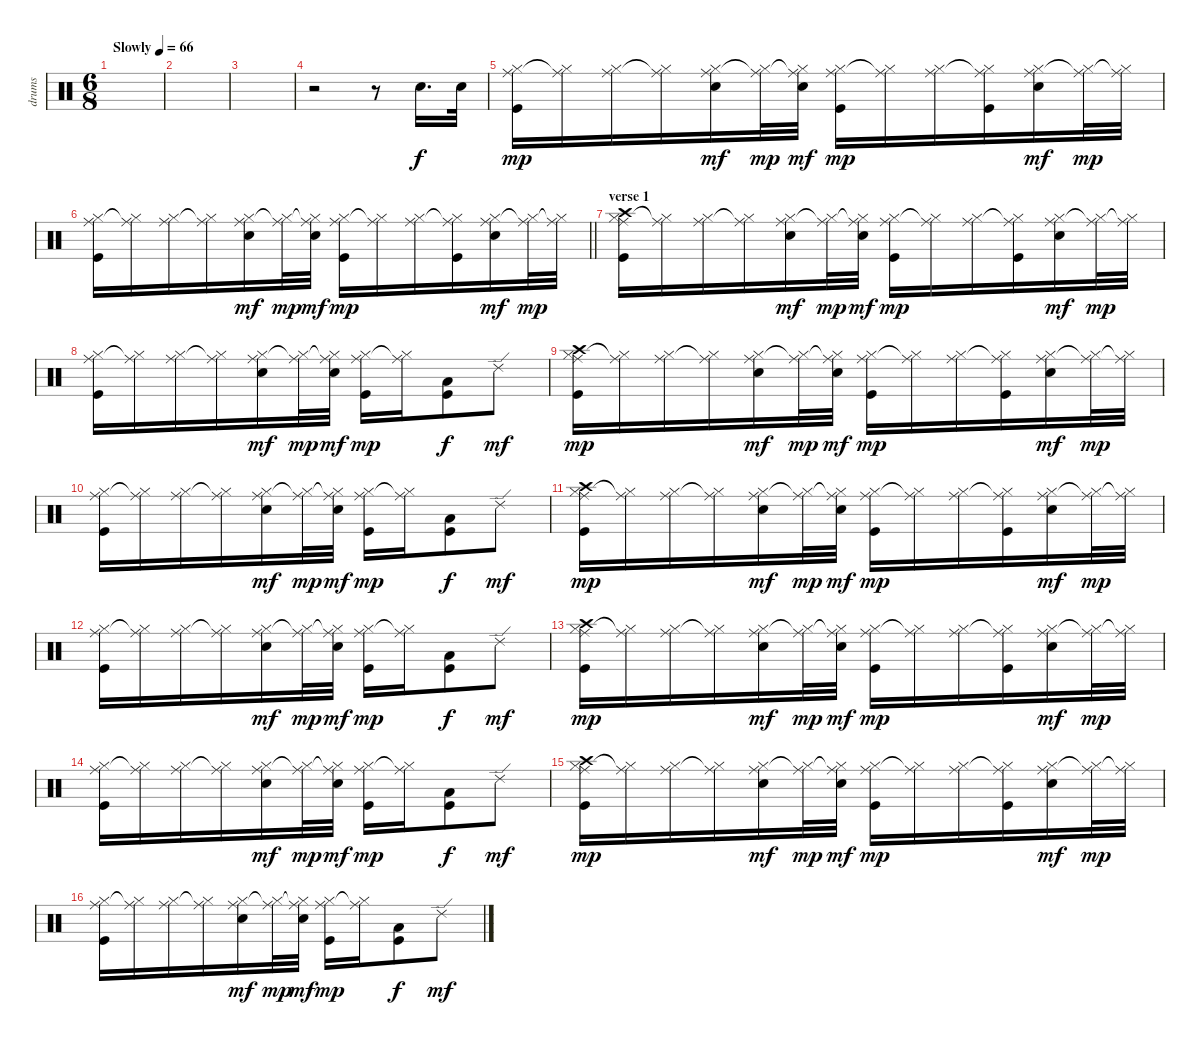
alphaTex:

\track ("drums" "drums") {instrument percussion}
\staff {score}
\articulation defaults
\ts (6 8)
\tempo (66 "Slowly")
\clef neutral
\ks c
|
|
|
r.2 r.8 "Electric Snare (hit)".16{d} "Electric Snare (hit)".32 |
("Hi-Hat (closed)" "Ride (middle)" "Kick (hit)").16{dy mp} ("Hi-Hat (closed)" "Ride (middle)"{t}).16 ("Hi-Hat (closed)" "Ride (middle)").16 ("Hi-Hat (closed)" "Ride (middle)"{t}).16 ("Hi-Hat (closed)" "Ride (middle)" "Electric Snare (hit)").16{dy mf} ("Hi-Hat (closed)" "Ride (middle)"{t}).32{dy mp} ("Hi-Hat (closed)" "Ride (middle)"{t} "Electric Snare (hit)").32{dy mf} ("Hi-Hat (closed)" "Ride (middle)" "Kick (hit)").16{dy mp} ("Hi-Hat (closed)" "Ride (middle)"{t}).16 ("Hi-Hat (closed)" "Ride (middle)").16 ("Hi-Hat (closed)" "Ride (middle)"{t} "Kick (hit)").16 ("Hi-Hat (closed)" "Ride (middle)" "Electric Snare (hit)").16{dy mf} ("Hi-Hat (closed)" "Ride (middle)"{t}).32{dy mp} ("Hi-Hat (closed)" "Ride (middle)"{t}).32 |
\barLineRight lightlight
("Hi-Hat (closed)" "Ride (middle)" "Kick (hit)").16 ("Hi-Hat (closed)" "Ride (middle)"{t}).16 ("Hi-Hat (closed)" "Ride (middle)").16 ("Hi-Hat (closed)" "Ride (middle)"{t}).16 ("Hi-Hat (closed)" "Ride (middle)" "Electric Snare (hit)").16{dy mf} ("Hi-Hat (closed)" "Ride (middle)"{t}).32{dy mp} ("Hi-Hat (closed)" "Ride (middle)"{t} "Electric Snare (hit)").32{dy mf} ("Hi-Hat (closed)" "Ride (middle)" "Kick (hit)").16{dy mp} ("Hi-Hat (closed)" "Ride (middle)"{t}).16 ("Hi-Hat (closed)" "Ride (middle)").16 ("Hi-Hat (closed)" "Ride (middle)"{t} "Kick (hit)").16 ("Hi-Hat (closed)" "Ride (middle)" "Electric Snare (hit)").16{dy mf} ("Hi-Hat (closed)" "Ride (middle)"{t}).32{dy mp} ("Hi-Hat (closed)" "Ride (middle)"{t}).32 |
\section ("" "verse 1")
("Crash high (hit)" "Hi-Hat (closed)" "Ride (middle)" "Kick (hit)").16 ("Hi-Hat (closed)" "Ride (middle)"{t}).16 ("Hi-Hat (closed)" "Ride (middle)").16 ("Hi-Hat (closed)" "Ride (middle)"{t}).16 ("Hi-Hat (closed)" "Ride (middle)" "Electric Snare (hit)").16{dy mf} ("Hi-Hat (closed)" "Ride (middle)"{t}).32{dy mp} ("Hi-Hat (closed)" "Ride (middle)"{t} "Electric Snare (hit)").32{dy mf} ("Hi-Hat (closed)" "Ride (middle)" "Kick (hit)").16{dy mp} ("Hi-Hat (closed)" "Ride (middle)"{t}).16 ("Hi-Hat (closed)" "Ride (middle)").16 ("Hi-Hat (closed)" "Ride (middle)"{t} "Kick (hit)").16 ("Hi-Hat (closed)" "Ride (middle)" "Electric Snare (hit)").16{dy mf} ("Hi-Hat (closed)" "Ride (middle)"{t}).32{dy mp} ("Hi-Hat (closed)" "Ride (middle)"{t}).32 |
("Hi-Hat (closed)" "Ride (middle)" "Kick (hit)").16 ("Hi-Hat (closed)" "Ride (middle)"{t}).16 ("Hi-Hat (closed)" "Ride (middle)").16 ("Hi-Hat (closed)" "Ride (middle)"{t}).16 ("Hi-Hat (closed)" "Ride (middle)" "Electric Snare (hit)").16{dy mf} ("Hi-Hat (closed)" "Ride (middle)"{t}).32{dy mp} ("Hi-Hat (closed)" "Ride (middle)"{t} "Electric Snare (hit)").32{dy mf} ("Hi-Hat (closed)" "Ride (middle)" "Kick (hit)").16{dy mp} ("Hi-Hat (closed)" "Ride (middle)"{t}).16 ("Low Tom (hit)" "Kick (hit)").8{dy f} "Ride (edge) 2".8{dy mf} |
("Crash high (hit)" "Hi-Hat (closed)" "Ride (middle)" "Kick (hit)").16{dy mp} ("Hi-Hat (closed)" "Ride (middle)"{t}).16 ("Hi-Hat (closed)" "Ride (middle)").16 ("Hi-Hat (closed)" "Ride (middle)"{t}).16 ("Hi-Hat (closed)" "Ride (middle)" "Electric Snare (hit)").16{dy mf} ("Hi-Hat (closed)" "Ride (middle)"{t}).32{dy mp} ("Hi-Hat (closed)" "Ride (middle)"{t} "Electric Snare (hit)").32{dy mf} ("Hi-Hat (closed)" "Ride (middle)" "Kick (hit)").16{dy mp} ("Hi-Hat (closed)" "Ride (middle)"{t}).16 ("Hi-Hat (closed)" "Ride (middle)").16 ("Hi-Hat (closed)" "Ride (middle)"{t} "Kick (hit)").16 ("Hi-Hat (closed)" "Ride (middle)" "Electric Snare (hit)").16{dy mf} ("Hi-Hat (closed)" "Ride (middle)"{t}).32{dy mp} ("Hi-Hat (closed)" "Ride (middle)"{t}).32 |
("Hi-Hat (closed)" "Ride (middle)" "Kick (hit)").16 ("Hi-Hat (closed)" "Ride (middle)"{t}).16 ("Hi-Hat (closed)" "Ride (middle)").16 ("Hi-Hat (closed)" "Ride (middle)"{t}).16 ("Hi-Hat (closed)" "Ride (middle)" "Electric Snare (hit)").16{dy mf} ("Hi-Hat (closed)" "Ride (middle)"{t}).32{dy mp} ("Hi-Hat (closed)" "Ride (middle)"{t} "Electric Snare (hit)").32{dy mf} ("Hi-Hat (closed)" "Ride (middle)" "Kick (hit)").16{dy mp} ("Hi-Hat (closed)" "Ride (middle)"{t}).16 ("Low Tom (hit)" "Kick (hit)").8{dy f} "Ride (edge) 2".8{dy mf} |
("Crash high (hit)" "Hi-Hat (closed)" "Ride (middle)" "Kick (hit)").16{dy mp} ("Hi-Hat (closed)" "Ride (middle)"{t}).16 ("Hi-Hat (closed)" "Ride (middle)").16 ("Hi-Hat (closed)" "Ride (middle)"{t}).16 ("Hi-Hat (closed)" "Ride (middle)" "Electric Snare (hit)").16{dy mf} ("Hi-Hat (closed)" "Ride (middle)"{t}).32{dy mp} ("Hi-Hat (closed)" "Ride (middle)"{t} "Electric Snare (hit)").32{dy mf} ("Hi-Hat (closed)" "Ride (middle)" "Kick (hit)").16{dy mp} ("Hi-Hat (closed)" "Ride (middle)"{t}).16 ("Hi-Hat (closed)" "Ride (middle)").16 ("Hi-Hat (closed)" "Ride (middle)"{t} "Kick (hit)").16 ("Hi-Hat (closed)" "Ride (middle)" "Electric Snare (hit)").16{dy mf} ("Hi-Hat (closed)" "Ride (middle)"{t}).32{dy mp} ("Hi-Hat (closed)" "Ride (middle)"{t}).32 |
("Hi-Hat (closed)" "Ride (middle)" "Kick (hit)").16 ("Hi-Hat (closed)" "Ride (middle)"{t}).16 ("Hi-Hat (closed)" "Ride (middle)").16 ("Hi-Hat (closed)" "Ride (middle)"{t}).16 ("Hi-Hat (closed)" "Ride (middle)" "Electric Snare (hit)").16{dy mf} ("Hi-Hat (closed)" "Ride (middle)"{t}).32{dy mp} ("Hi-Hat (closed)" "Ride (middle)"{t} "Electric Snare (hit)").32{dy mf} ("Hi-Hat (closed)" "Ride (middle)" "Kick (hit)").16{dy mp} ("Hi-Hat (closed)" "Ride (middle)"{t}).16 ("Low Tom (hit)" "Kick (hit)").8{dy f} "Ride (edge) 2".8{dy mf} |
("Crash high (hit)" "Hi-Hat (closed)" "Ride (middle)" "Kick (hit)").16{dy mp} ("Hi-Hat (closed)" "Ride (middle)"{t}).16 ("Hi-Hat (closed)" "Ride (middle)").16 ("Hi-Hat (closed)" "Ride (middle)"{t}).16 ("Hi-Hat (closed)" "Ride (middle)" "Electric Snare (hit)").16{dy mf} ("Hi-Hat (closed)" "Ride (middle)"{t}).32{dy mp} ("Hi-Hat (closed)" "Ride (middle)"{t} "Electric Snare (hit)").32{dy mf} ("Hi-Hat (closed)" "Ride (middle)" "Kick (hit)").16{dy mp} ("Hi-Hat (closed)" "Ride (middle)"{t}).16 ("Hi-Hat (closed)" "Ride (middle)").16 ("Hi-Hat (closed)" "Ride (middle)"{t} "Kick (hit)").16 ("Hi-Hat (closed)" "Ride (middle)" "Electric Snare (hit)").16{dy mf} ("Hi-Hat (closed)" "Ride (middle)"{t}).32{dy mp} ("Hi-Hat (closed)" "Ride (middle)"{t}).32 |
("Hi-Hat (closed)" "Ride (middle)" "Kick (hit)").16 ("Hi-Hat (closed)" "Ride (middle)"{t}).16 ("Hi-Hat (closed)" "Ride (middle)").16 ("Hi-Hat (closed)" "Ride (middle)"{t}).16 ("Hi-Hat (closed)" "Ride (middle)" "Electric Snare (hit)").16{dy mf} ("Hi-Hat (closed)" "Ride (middle)"{t}).32{dy mp} ("Hi-Hat (closed)" "Ride (middle)"{t} "Electric Snare (hit)").32{dy mf} ("Hi-Hat (closed)" "Ride (middle)" "Kick (hit)").16{dy mp} ("Hi-Hat (closed)" "Ride (middle)"{t}).16 ("Low Tom (hit)" "Kick (hit)").8{dy f} "Ride (edge) 2".8{dy mf} |
("Crash high (hit)" "Hi-Hat (closed)" "Ride (middle)" "Kick (hit)").16{dy mp} ("Hi-Hat (closed)" "Ride (middle)"{t}).16 ("Hi-Hat (closed)" "Ride (middle)").16 ("Hi-Hat (closed)" "Ride (middle)"{t}).16 ("Hi-Hat (closed)" "Ride (middle)" "Electric Snare (hit)").16{dy mf} ("Hi-Hat (closed)" "Ride (middle)"{t}).32{dy mp} ("Hi-Hat (closed)" "Ride (middle)"{t} "Electric Snare (hit)").32{dy mf} ("Hi-Hat (closed)" "Ride (middle)" "Kick (hit)").16{dy mp} ("Hi-Hat (closed)" "Ride (middle)"{t}).16 ("Hi-Hat (closed)" "Ride (middle)").16 ("Hi-Hat (closed)" "Ride (middle)"{t} "Kick (hit)").16 ("Hi-Hat (closed)" "Ride (middle)" "Electric Snare (hit)").16{dy mf} ("Hi-Hat (closed)" "Ride (middle)"{t}).32{dy mp} ("Hi-Hat (closed)" "Ride (middle)"{t}).32 |
("Hi-Hat (closed)" "Ride (middle)" "Kick (hit)").16 ("Hi-Hat (closed)" "Ride (middle)"{t}).16 ("Hi-Hat (closed)" "Ride (middle)").16 ("Hi-Hat (closed)" "Ride (middle)"{t}).16 ("Hi-Hat (closed)" "Ride (middle)" "Electric Snare (hit)").16{dy mf} ("Hi-Hat (closed)" "Ride (middle)"{t}).32{dy mp} ("Hi-Hat (closed)" "Ride (middle)"{t} "Electric Snare (hit)").32{dy mf} ("Hi-Hat (closed)" "Ride (middle)" "Kick (hit)").16{dy mp} ("Hi-Hat (closed)" "Ride (middle)"{t}).16 ("Low Tom (hit)" "Kick (hit)").8{dy f} "Ride (edge) 2".8{dy mf}
